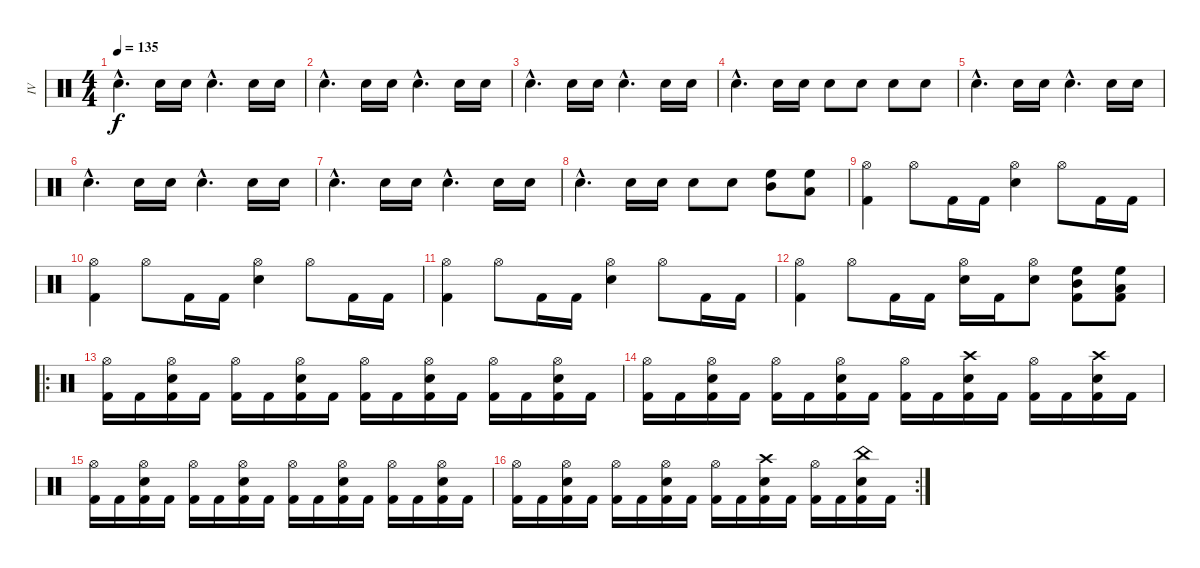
\track ("IV" "IV") {instrument percussion}
\staff {score}
\articulation defaults
\ts (4 4)
\tempo 135
\clef neutral
\ks c "Snare (hit) 2"{hac}.4{d dy f} "Snare (hit) 2".16 "Snare (hit) 2".16 "Snare (hit) 2"{hac}.4{d} "Snare (hit) 2".16 "Snare (hit) 2".16
|
"Snare (hit) 2"{hac}.4{d} "Snare (hit) 2".16 "Snare (hit) 2".16 "Snare (hit) 2"{hac}.4{d} "Snare (hit) 2".16 "Snare (hit) 2".16 |
"Snare (hit) 2"{hac}.4{d} "Snare (hit) 2".16 "Snare (hit) 2".16 "Snare (hit) 2"{hac}.4{d} "Snare (hit) 2".16 "Snare (hit) 2".16 |
"Snare (hit) 2"{hac}.4{d} "Snare (hit) 2".16 "Snare (hit) 2".16 "Snare (hit) 2".8 "Snare (hit) 2".8 "Snare (hit) 2".8 "Snare (hit) 2".8 |
"Snare (hit) 2"{hac}.4{d} "Snare (hit) 2".16 "Snare (hit) 2".16 "Snare (hit) 2"{hac}.4{d} "Snare (hit) 2".16 "Snare (hit) 2".16 |
"Snare (hit) 2"{hac}.4{d} "Snare (hit) 2".16 "Snare (hit) 2".16 "Snare (hit) 2"{hac}.4{d} "Snare (hit) 2".16 "Snare (hit) 2".16 |
"Snare (hit) 2"{hac}.4{d} "Snare (hit) 2".16 "Snare (hit) 2".16 "Snare (hit) 2"{hac}.4{d} "Snare (hit) 2".16 "Snare (hit) 2".16 |
"Snare (hit) 2"{hac}.4{d} "Snare (hit) 2".16 "Snare (hit) 2".16 "Snare (hit) 2".8 "Snare (hit) 2".8 ("High Floor Tom (hit)" "Mid Tom (hit)").8 ("High Floor Tom (hit)" "Low Tom (hit)").8 |
("Hi-Hat (open)" "Kick (hit) 2").4 "Hi-Hat (open)".8 "Kick (hit) 2".16 "Kick (hit) 2".16 ("Hi-Hat (open)" "Snare (hit) 2").4 "Hi-Hat (open)".8 "Kick (hit) 2".16 "Kick (hit) 2".16 |
("Hi-Hat (open)" "Kick (hit) 2").4 "Hi-Hat (open)".8 "Kick (hit) 2".16 "Kick (hit) 2".16 ("Hi-Hat (open)" "Snare (hit) 2").4 "Hi-Hat (open)".8 "Kick (hit) 2".16 "Kick (hit) 2".16 |
("Hi-Hat (open)" "Kick (hit) 2").4 "Hi-Hat (open)".8 "Kick (hit) 2".16 "Kick (hit) 2".16 ("Hi-Hat (open)" "Snare (hit) 2").4 "Hi-Hat (open)".8 "Kick (hit) 2".16 "Kick (hit) 2".16 |
("Hi-Hat (open)" "Kick (hit) 2").4 "Hi-Hat (open)".8 "Kick (hit) 2".16 "Kick (hit) 2".16 ("Hi-Hat (open)" "Snare (hit) 2").16 "Kick (hit) 2".16 ("Hi-Hat (open)" "Snare (hit) 2").8 ("High Floor Tom (hit)" "Mid Tom (hit)" "Kick (hit) 2").8 ("High Floor Tom (hit)" "Low Tom (hit)" "Kick (hit) 2").8 |
\ro
("Hi-Hat (open)" "Kick (hit) 2").16 "Kick (hit) 2".16 ("Hi-Hat (open)" "Snare (hit) 2" "Kick (hit) 2").16 "Kick (hit) 2".16 ("Hi-Hat (open)" "Kick (hit) 2").16 "Kick (hit) 2".16 ("Hi-Hat (open)" "Snare (hit) 2" "Kick (hit) 2").16 "Kick (hit) 2".16 ("Hi-Hat (open)" "Kick (hit) 2").16 "Kick (hit) 2".16 ("Hi-Hat (open)" "Snare (hit) 2" "Kick (hit) 2").16 "Kick (hit) 2".16 ("Hi-Hat (open)" "Kick (hit) 2").16 "Kick (hit) 2".16 ("Hi-Hat (open)" "Snare (hit) 2" "Kick (hit) 2").16 "Kick (hit) 2".16 |
("Hi-Hat (open)" "Kick (hit) 2").16 "Kick (hit) 2".16 ("Hi-Hat (open)" "Snare (hit) 2" "Kick (hit) 2").16 "Kick (hit) 2".16 ("Hi-Hat (open)" "Kick (hit) 2").16 "Kick (hit) 2".16 ("Hi-Hat (open)" "Snare (hit) 2" "Kick (hit) 2").16 "Kick (hit) 2".16 ("Hi-Hat (open)" "Kick (hit) 2").16 "Kick (hit) 2".16 ("Crash high (hit)" "Snare (hit) 2" "Kick (hit) 2").16 "Kick (hit) 2".16 ("Hi-Hat (open)" "Kick (hit) 2").16 "Kick (hit) 2".16 ("Crash high (hit)" "Snare (hit) 2" "Kick (hit) 2").16 "Kick (hit) 2".16 |
("Hi-Hat (open)" "Kick (hit) 2").16 "Kick (hit) 2".16 ("Hi-Hat (open)" "Snare (hit) 2" "Kick (hit) 2").16 "Kick (hit) 2".16 ("Hi-Hat (open)" "Kick (hit) 2").16 "Kick (hit) 2".16 ("Hi-Hat (open)" "Snare (hit) 2" "Kick (hit) 2").16 "Kick (hit) 2".16 ("Hi-Hat (open)" "Kick (hit) 2").16 "Kick (hit) 2".16 ("Hi-Hat (open)" "Snare (hit) 2" "Kick (hit) 2").16 "Kick (hit) 2".16 ("Hi-Hat (open)" "Kick (hit) 2").16 "Kick (hit) 2".16 ("Hi-Hat (open)" "Snare (hit) 2" "Kick (hit) 2").16 "Kick (hit) 2".16 |
\rc 2
("Hi-Hat (open)" "Kick (hit) 2").16 "Kick (hit) 2".16 ("Hi-Hat (open)" "Snare (hit) 2" "Kick (hit) 2").16 "Kick (hit) 2".16 ("Hi-Hat (open)" "Kick (hit) 2").16 "Kick (hit) 2".16 ("Hi-Hat (open)" "Snare (hit) 2" "Kick (hit) 2").16 "Kick (hit) 2".16 ("Hi-Hat (open)" "Kick (hit) 2").16 "Kick (hit) 2".16 ("Crash high (hit)" "Snare (hit) 2" "Kick (hit) 2").16 "Kick (hit) 2".16 ("Hi-Hat (open)" "Kick (hit) 2").16 "Kick (hit) 2".16 ("China (hit)" "Snare (hit) 2" "Kick (hit) 2").16 "Kick (hit) 2".16
